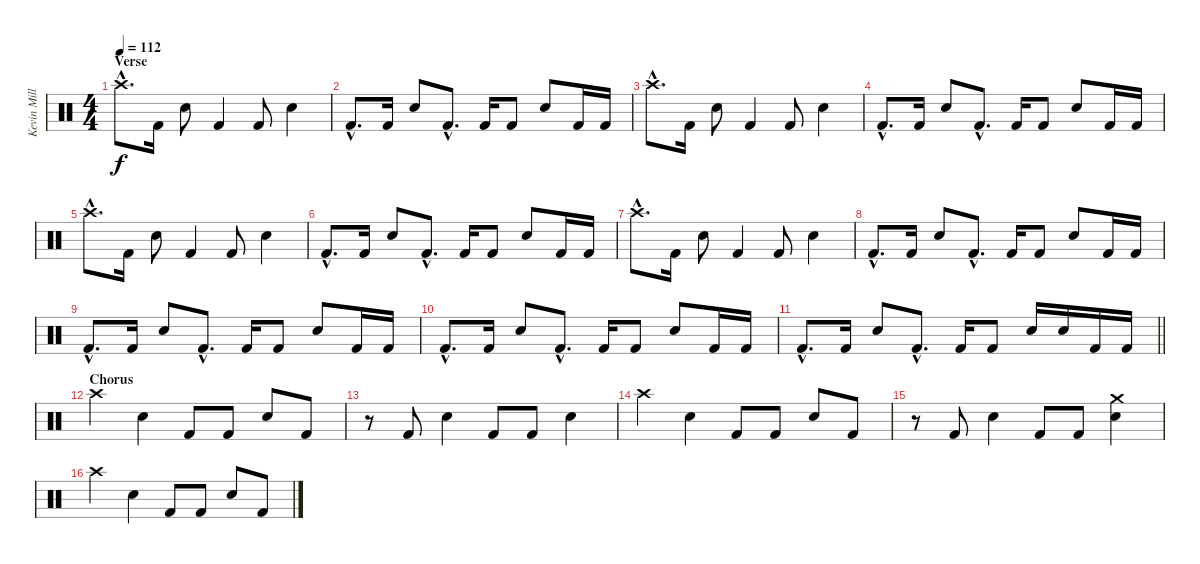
\track ("Kevin Miller (Drums)" "Kevin Mill") {instrument percussion}
\staff {score}
\articulation defaults
\ts (4 4)
\section ("" "Verse")
\tempo 112
\clef neutral
\ks c "Crash high (hit)"{hac}.8{d dy f} "Kick (hit) 2".16 "Electric Snare (hit)".8 "Kick (hit) 2".4 "Kick (hit) 2".8 "Electric Snare (hit)".4
|
"Kick (hit) 2"{hac}.8{d} "Kick (hit) 2".16 "Electric Snare (hit)".8 "Kick (hit) 2"{hac}.8{d} "Kick (hit) 2".16 "Kick (hit) 2".8 "Electric Snare (hit)".8 "Kick (hit) 2".16 "Kick (hit) 2".16 |
"Crash high (hit)"{hac}.8{d} "Kick (hit) 2".16 "Electric Snare (hit)".8 "Kick (hit) 2".4 "Kick (hit) 2".8 "Electric Snare (hit)".4 |
"Kick (hit) 2"{hac}.8{d} "Kick (hit) 2".16 "Electric Snare (hit)".8 "Kick (hit) 2"{hac}.8{d} "Kick (hit) 2".16 "Kick (hit) 2".8 "Electric Snare (hit)".8 "Kick (hit) 2".16 "Kick (hit) 2".16 |
"Crash high (hit)"{hac}.8{d} "Kick (hit) 2".16 "Electric Snare (hit)".8 "Kick (hit) 2".4 "Kick (hit) 2".8 "Electric Snare (hit)".4 |
"Kick (hit) 2"{hac}.8{d} "Kick (hit) 2".16 "Electric Snare (hit)".8 "Kick (hit) 2"{hac}.8{d} "Kick (hit) 2".16 "Kick (hit) 2".8 "Electric Snare (hit)".8 "Kick (hit) 2".16 "Kick (hit) 2".16 |
"Crash high (hit)"{hac}.8{d} "Kick (hit) 2".16 "Electric Snare (hit)".8 "Kick (hit) 2".4 "Kick (hit) 2".8 "Electric Snare (hit)".4 |
"Kick (hit) 2"{hac}.8{d} "Kick (hit) 2".16 "Electric Snare (hit)".8 "Kick (hit) 2"{hac}.8{d} "Kick (hit) 2".16 "Kick (hit) 2".8 "Electric Snare (hit)".8 "Kick (hit) 2".16 "Kick (hit) 2".16 |
"Kick (hit) 2"{hac}.8{d} "Kick (hit) 2".16 "Electric Snare (hit)".8 "Kick (hit) 2"{hac}.8{d} "Kick (hit) 2".16 "Kick (hit) 2".8 "Electric Snare (hit)".8 "Kick (hit) 2".16 "Kick (hit) 2".16 |
"Kick (hit) 2"{hac}.8{d} "Kick (hit) 2".16 "Electric Snare (hit)".8 "Kick (hit) 2"{hac}.8{d} "Kick (hit) 2".16 "Kick (hit) 2".8 "Electric Snare (hit)".8 "Kick (hit) 2".16 "Kick (hit) 2".16 |
\barLineRight lightlight "Kick (hit) 2"{hac}.8{d} "Kick (hit) 2".16 "Electric Snare (hit)".8 "Kick (hit) 2"{hac}.8{d} "Kick (hit) 2".16 "Kick (hit) 2".8 "Electric Snare (hit)".16 "Electric Snare (hit)".16 "Kick (hit) 2".16 "Kick (hit) 2".16
|
\section ("" "Chorus")
"Crash high (hit)".4 "Electric Snare (hit)".4 "Kick (hit) 2".8 "Kick (hit) 2".8 "Electric Snare (hit)".8 "Kick (hit) 2".8 |
r.8 "Kick (hit) 2".8 "Electric Snare (hit)".4 "Kick (hit) 2".8 "Kick (hit) 2".8 "Electric Snare (hit)".4 |
"Crash high (hit)".4 "Electric Snare (hit)".4 "Kick (hit) 2".8 "Kick (hit) 2".8 "Electric Snare (hit)".8 "Kick (hit) 2".8 |
r.8 "Kick (hit) 2".8 "Electric Snare (hit)".4 "Kick (hit) 2".8 "Kick (hit) 2".8 ("Crash medium (hit)" "Electric Snare (hit)").4 |
"Crash high (hit)".4 "Electric Snare (hit)".4 "Kick (hit) 2".8 "Kick (hit) 2".8 "Electric Snare (hit)".8 "Kick (hit) 2".8
